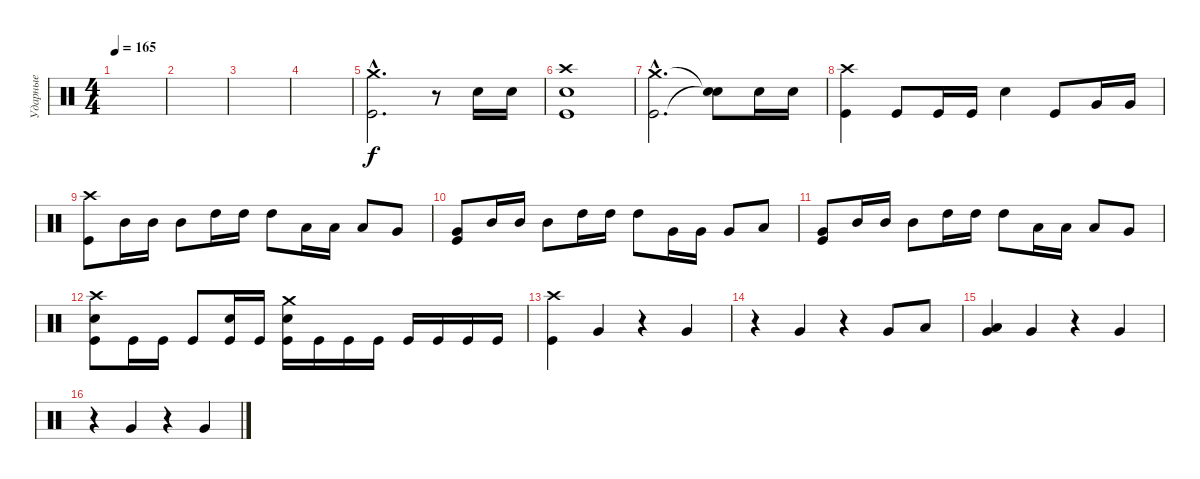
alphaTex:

\track ("Ударные" "Ударные") {instrument percussion}
\staff {score}
\articulation defaults
\ts (4 4)
\tempo 165
\clef neutral
\ks c
|
|
|
|
("Crash medium (hit)"{hac} "Kick (hit)"{hac}).2{d} r.8 "Electric Snare (hit)".16 "Electric Snare (hit)".16 |
("Kick (hit)" "Electric Snare (hit)" "Crash high (hit)").1 |
("Crash medium (hit)"{hac} "Kick (hit)"{hac}).2{d} ("Snare (hit)"{t} "Snare (hit)"{t}).8 "Electric Snare (hit)".16 "Electric Snare (hit)".16 |
("Crash high (hit)" "Kick (hit)").4 "Kick (hit)".8 "Kick (hit)".16 "Kick (hit)".16 "Electric Snare (hit)".4 "Kick (hit)".8 "Very Low Tom (hit)".16 "Very Low Tom (hit)".16 |
("Crash high (hit)" "Kick (hit)").8 "Mid Tom (hit)".16 "Mid Tom (hit)".16 "Mid Tom (hit)".8 "High Tom (hit)".16 "High Tom (hit)".16 "High Tom (hit)".8 "Low Tom (hit)".16 "Low Tom (hit)".16 "Low Tom (hit)".8 "Very Low Tom (hit)".8 |
("Very Low Tom (hit)" "Kick (hit)").8 "Mid Tom (hit)".16 "Mid Tom (hit)".16 "Mid Tom (hit)".8 "High Tom (hit)".16 "High Tom (hit)".16 "High Tom (hit)".8 "Very Low Tom (hit)".16 "Very Low Tom (hit)".16 "Very Low Tom (hit)".8 "Low Tom (hit)".8 |
("Very Low Tom (hit)" "Kick (hit)").8 "Mid Tom (hit)".16 "Mid Tom (hit)".16 "Mid Tom (hit)".8 "High Tom (hit)".16 "High Tom (hit)".16 "High Tom (hit)".8 "Low Tom (hit)".16 "Low Tom (hit)".16 "Low Tom (hit)".8 "Very Low Tom (hit)".8 |
("Crash high (hit)" "Electric Snare (hit)" "Kick (hit)").8 "Kick (hit)".16 "Kick (hit)".16 "Kick (hit)".8 ("Electric Snare (hit)" "Kick (hit)").16 "Kick (hit)".16 ("Crash medium (hit)" "Electric Snare (hit)" "Kick (hit)").16 "Kick (hit)".16 "Kick (hit)".16 "Kick (hit)".16 "Kick (hit)".16 "Kick (hit)".16 "Kick (hit)".16 "Kick (hit)".16 |
("Crash high (hit)" "Kick (hit)").4 "Very Low Tom (hit)".4 r.4 "Very Low Tom (hit)".4 |
r.4 "Very Low Tom (hit)".4 r.4 "Very Low Tom (hit)".8 "Low Tom (hit)".8 |
("Very Low Tom (hit)" "Low Tom (hit)").4 "Very Low Tom (hit)".4 r.4 "Very Low Tom (hit)".4 |
r.4 "Very Low Tom (hit)".4 r.4 "Very Low Tom (hit)".4
